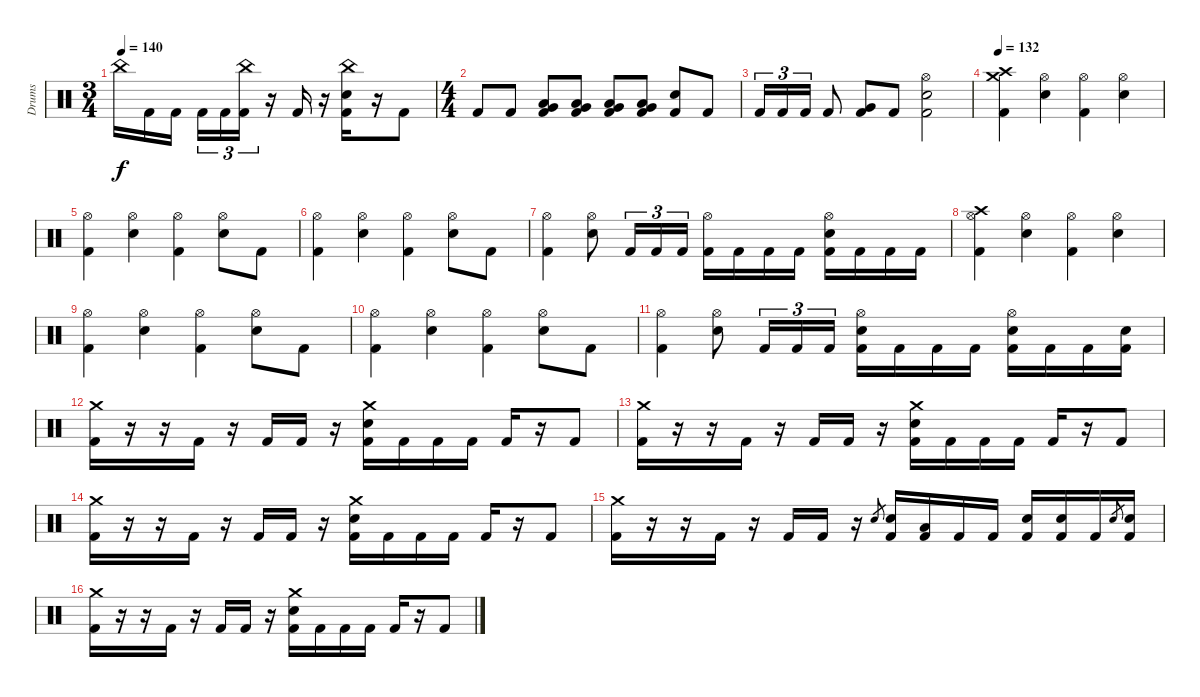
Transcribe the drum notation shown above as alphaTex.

\track ("Drums" "Drums") {instrument percussion}
\staff {score}
\articulation defaults
\ts (3 4)
\tempo 140
\clef neutral
\ks c "China (hit)".16{dy f} "Kick (hit) 2".16 "Kick (hit) 2".16{beam splitsecondary} "Kick (hit) 2".16{tu (3 2)} "Kick (hit) 2".16{tu (3 2)}
("China (hit)" "Kick (hit) 2").16{tu (3 2)} r.16 "Kick (hit) 2".16 r.16 ("China (hit)" "Electric Snare (hit)" "Kick (hit) 2").16 r.16 "Kick (hit) 2".8 |
\ts (4 4)
"Kick (hit) 2".8 "Kick (hit) 2".8 ("Low Tom (hit)" "Very Low Tom (hit)" "Kick (hit) 2").8 ("Low Tom (hit)" "Very Low Tom (hit)" "Kick (hit) 2").8 ("Low Tom (hit)" "Very Low Tom (hit)" "Kick (hit) 2").8 ("Low Tom (hit)" "Very Low Tom (hit)" "Kick (hit) 2").8 ("Electric Snare (hit)" "Kick (hit) 2").8 "Kick (hit) 2".8 |
"Kick (hit) 2".16{tu (3 2)} "Kick (hit) 2".16{tu (3 2)} "Kick (hit) 2".16{tu (3 2)} "Kick (hit) 2".8 ("Very Low Tom (hit)" "Kick (hit) 2").8 "Kick (hit) 2".8 ("Hi-Hat (open)" "Electric Snare (hit)" "Kick (hit) 2").2 |
\tempo 132
("Crash high (hit)" "Crash medium (hit)" "Kick (hit) 2").4 ("Hi-Hat (open)" "Electric Snare (hit)").4 ("Hi-Hat (open)" "Kick (hit) 2").4 ("Hi-Hat (open)" "Electric Snare (hit)").4 |
("Hi-Hat (open)" "Kick (hit) 2").4 ("Hi-Hat (open)" "Electric Snare (hit)").4 ("Hi-Hat (open)" "Kick (hit) 2").4 ("Hi-Hat (open)" "Electric Snare (hit)").8 "Kick (hit) 2".8 |
("Hi-Hat (open)" "Kick (hit) 2").4 ("Hi-Hat (open)" "Electric Snare (hit)").4 ("Hi-Hat (open)" "Kick (hit) 2").4 ("Hi-Hat (open)" "Electric Snare (hit)").8 "Kick (hit) 2".8 |
("Hi-Hat (open)" "Kick (hit) 2").4 ("Hi-Hat (open)" "Electric Snare (hit)").8 "Kick (hit) 2".16{tu (3 2)} "Kick (hit) 2".16{tu (3 2)} "Kick (hit) 2".16{tu (3 2)} ("Hi-Hat (open)" "Kick (hit) 2").16 "Kick (hit) 2".16 "Kick (hit) 2".16 "Kick (hit) 2".16 ("Hi-Hat (open)" "Electric Snare (hit)" "Kick (hit) 2").16 "Kick (hit) 2".16 "Kick (hit) 2".16 "Kick (hit) 2".16 |
("Crash high (hit)" "Hi-Hat (open)" "Kick (hit) 2").4 ("Hi-Hat (open)" "Electric Snare (hit)").4 ("Hi-Hat (open)" "Kick (hit) 2").4 ("Hi-Hat (open)" "Electric Snare (hit)").4 |
("Hi-Hat (open)" "Kick (hit) 2").4 ("Hi-Hat (open)" "Electric Snare (hit)").4 ("Hi-Hat (open)" "Kick (hit) 2").4 ("Hi-Hat (open)" "Electric Snare (hit)").8 "Kick (hit) 2".8 |
("Hi-Hat (open)" "Kick (hit) 2").4 ("Hi-Hat (open)" "Electric Snare (hit)").4 ("Hi-Hat (open)" "Kick (hit) 2").4 ("Hi-Hat (open)" "Electric Snare (hit)").8 "Kick (hit) 2".8 |
("Hi-Hat (open)" "Kick (hit) 2").4 ("Hi-Hat (open)" "Electric Snare (hit)").8 "Kick (hit) 2".16{tu (3 2)} "Kick (hit) 2".16{tu (3 2)} "Kick (hit) 2".16{tu (3 2)} ("Hi-Hat (open)" "Electric Snare (hit)" "Kick (hit) 2").16 "Kick (hit) 2".16 "Kick (hit) 2".16 "Kick (hit) 2".16 ("Hi-Hat (open)" "Electric Snare (hit)" "Kick (hit) 2").16 "Kick (hit) 2".16 "Kick (hit) 2".16 ("Electric Snare (hit)" "Kick (hit) 2").16 |
("Crash medium (hit)" "Kick (hit) 2").16 r.16 r.16 "Kick (hit) 2".16 r.16 "Kick (hit) 2".16 "Kick (hit) 2".16 r.16 ("Crash medium (hit)" "Electric Snare (hit)" "Kick (hit) 2").16 "Kick (hit) 2".16 "Kick (hit) 2".16 "Kick (hit) 2".16 "Kick (hit) 2".16 r.16 "Kick (hit) 2".8 |
("Crash medium (hit)" "Kick (hit) 2").16 r.16 r.16 "Kick (hit) 2".16 r.16 "Kick (hit) 2".16 "Kick (hit) 2".16 r.16 ("Crash medium (hit)" "Electric Snare (hit)" "Kick (hit) 2").16 "Kick (hit) 2".16 "Kick (hit) 2".16 "Kick (hit) 2".16 "Kick (hit) 2".16 r.16 "Kick (hit) 2".8 |
("Crash medium (hit)" "Kick (hit) 2").16 r.16 r.16 "Kick (hit) 2".16 r.16 "Kick (hit) 2".16 "Kick (hit) 2".16 r.16 ("Crash medium (hit)" "Electric Snare (hit)" "Kick (hit) 2").16 "Kick (hit) 2".16 "Kick (hit) 2".16 "Kick (hit) 2".16 "Kick (hit) 2".16 r.16 "Kick (hit) 2".8 |
("Crash medium (hit)" "Kick (hit) 2").16 r.16 r.16 "Kick (hit) 2".16 r.16 "Kick (hit) 2".16 "Kick (hit) 2".16 r.16 "Electric Snare (hit)".8{gr} ("Electric Snare (hit)" "Kick (hit) 2").16 ("Low Tom (hit)" "Kick (hit) 2").16 "Kick (hit) 2".16 "Kick (hit) 2".16 ("Electric Snare (hit)" "Kick (hit) 2").16 ("Electric Snare (hit)" "Kick (hit) 2").16 "Kick (hit) 2".16 "Electric Snare (hit)".8{gr} ("Electric Snare (hit)" "Kick (hit) 2").16 |
("Crash medium (hit)" "Kick (hit) 2").16 r.16 r.16 "Kick (hit) 2".16 r.16 "Kick (hit) 2".16 "Kick (hit) 2".16 r.16 ("Crash medium (hit)" "Electric Snare (hit)" "Kick (hit) 2").16 "Kick (hit) 2".16 "Kick (hit) 2".16 "Kick (hit) 2".16 "Kick (hit) 2".16 r.16 "Kick (hit) 2".8
